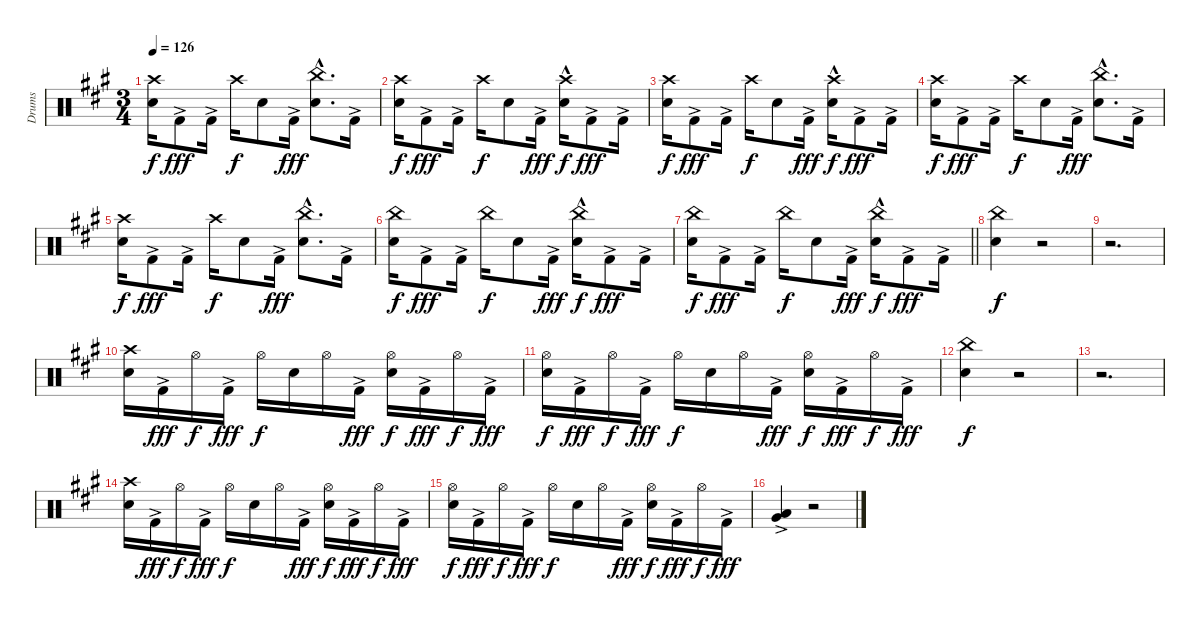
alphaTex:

\track ("Drums" "Drums") {instrument percussion}
\staff {score}
\articulation defaults
\ts (3 4)
\tempo 126
\clef neutral
\ks f#minor
("Crash high (hit)" "Snare (hit) 2").16{dy f} "Kick (hit) 2"{ac}.8{dy fff} "Kick (hit) 2"{ac}.16 "Crash high (hit)".16{dy f} "Snare (hit) 2".8 "Kick (hit) 2"{ac}.16{dy fff} ("China (hit)"{hac} "Snare (hit) 2"{hac}).8{d} "Kick (hit) 2"{ac}.16 |
("Crash high (hit)" "Snare (hit) 2").16{dy f} "Kick (hit) 2"{ac}.8{dy fff} "Kick (hit) 2"{ac}.16 "Crash high (hit)".16{dy f} "Snare (hit) 2".8 "Kick (hit) 2"{ac}.16{dy fff} ("Crash high (hit)"{hac} "Snare (hit) 2").16{dy f} "Kick (hit) 2"{ac}.8{dy fff} "Kick (hit) 2"{ac}.16 |
("Crash high (hit)" "Snare (hit) 2").16{dy f} "Kick (hit) 2"{ac}.8{dy fff} "Kick (hit) 2"{ac}.16 "Crash high (hit)".16{dy f} "Snare (hit) 2".8 "Kick (hit) 2"{ac}.16{dy fff} ("Crash high (hit)"{hac} "Snare (hit) 2").16{dy f} "Kick (hit) 2"{ac}.8{dy fff} "Kick (hit) 2"{ac}.16 |
("Crash high (hit)" "Snare (hit) 2").16{dy f} "Kick (hit) 2"{ac}.8{dy fff} "Kick (hit) 2"{ac}.16 "Crash high (hit)".16{dy f} "Snare (hit) 2".8 "Kick (hit) 2"{ac}.16{dy fff} ("China (hit)"{hac} "Snare (hit) 2"{hac}).8{d} "Kick (hit) 2"{ac}.16 |
("Crash high (hit)" "Snare (hit) 2").16{dy f} "Kick (hit) 2"{ac}.8{dy fff} "Kick (hit) 2"{ac}.16 "Crash high (hit)".16{dy f} "Snare (hit) 2".8 "Kick (hit) 2"{ac}.16{dy fff} ("China (hit)"{hac} "Snare (hit) 2"{hac}).8{d} "Kick (hit) 2"{ac}.16 |
("China (hit)" "Snare (hit) 2").16{dy f} "Kick (hit) 2"{ac}.8{dy fff} "Kick (hit) 2"{ac}.16 "China (hit)".16{dy f} "Snare (hit) 2".8 "Kick (hit) 2"{ac}.16{dy fff} ("China (hit)"{hac} "Snare (hit) 2").16{dy f} "Kick (hit) 2"{ac}.8{dy fff} "Kick (hit) 2"{ac}.16 |
\barLineRight lightlight
("China (hit)" "Snare (hit) 2").16{dy f} "Kick (hit) 2"{ac}.8{dy fff} "Kick (hit) 2"{ac}.16 "China (hit)".16{dy f} "Snare (hit) 2".8 "Kick (hit) 2"{ac}.16{dy fff} ("China (hit)"{hac} "Snare (hit) 2").16{dy f} "Kick (hit) 2"{ac}.8{dy fff} "Kick (hit) 2"{ac}.16 |
("China (hit)" "Snare (hit) 2").4{dy f} r.2 |
r.2{d} |
("Crash high (hit)" "Snare (hit) 2").16 "Kick (hit) 2"{ac}.16{dy fff} "Hi-Hat (open)".16{dy f} "Kick (hit) 2"{ac}.16{dy fff} "Hi-Hat (open)".16{dy f} "Snare (hit) 2".16 "Hi-Hat (open)".16 "Kick (hit) 2"{ac}.16{dy fff} ("Hi-Hat (open)" "Snare (hit) 2").16{dy f} "Kick (hit) 2"{ac}.16{dy fff} "Hi-Hat (open)".16{dy f} "Kick (hit) 2"{ac}.16{dy fff} |
("Hi-Hat (open)" "Snare (hit) 2").16{dy f} "Kick (hit) 2"{ac}.16{dy fff} "Hi-Hat (open)".16{dy f} "Kick (hit) 2"{ac}.16{dy fff} "Hi-Hat (open)".16{dy f} "Snare (hit) 2".16 "Hi-Hat (open)".16 "Kick (hit) 2"{ac}.16{dy fff} ("Hi-Hat (open)" "Snare (hit) 2").16{dy f} "Kick (hit) 2"{ac}.16{dy fff} "Hi-Hat (open)".16{dy f} "Kick (hit) 2"{ac}.16{dy fff} |
("China (hit)" "Snare (hit) 2").4{dy f} r.2 |
r.2{d} |
("Crash high (hit)" "Snare (hit) 2").16 "Kick (hit) 2"{ac}.16{dy fff} "Hi-Hat (open)".16{dy f} "Kick (hit) 2"{ac}.16{dy fff} "Hi-Hat (open)".16{dy f} "Snare (hit) 2".16 "Hi-Hat (open)".16 "Kick (hit) 2"{ac}.16{dy fff} ("Hi-Hat (open)" "Snare (hit) 2").16{dy f} "Kick (hit) 2"{ac}.16{dy fff} "Hi-Hat (open)".16{dy f} "Kick (hit) 2"{ac}.16{dy fff} |
("Hi-Hat (open)" "Snare (hit) 2").16{dy f} "Kick (hit) 2"{ac}.16{dy fff} "Hi-Hat (open)".16{dy f} "Kick (hit) 2"{ac}.16{dy fff} "Hi-Hat (open)".16{dy f} "Snare (hit) 2".16 "Hi-Hat (open)".16 "Kick (hit) 2"{ac}.16{dy fff} ("Hi-Hat (open)" "Snare (hit) 2").16{dy f} "Kick (hit) 2"{ac}.16{dy fff} "Hi-Hat (open)".16{dy f} "Kick (hit) 2"{ac}.16{dy fff} |
("Very Low Tom (hit)"{ac} "Low Floor Tom (hit)"{ac}).4 r.2
